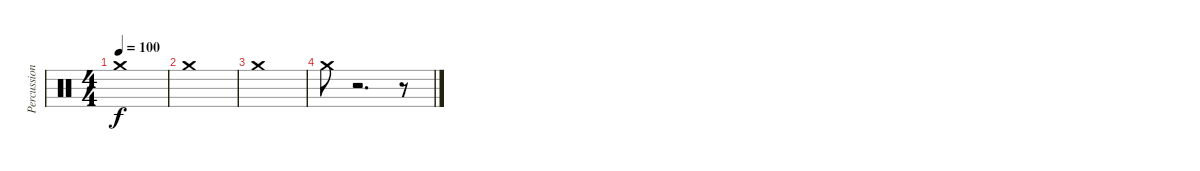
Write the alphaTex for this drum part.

\track ("Percussion" "Percussion") {instrument percussion}
\staff {score}
\articulation defaults
\ts (4 4)
\tempo 100
\clef neutral
\ks c "Crash medium (hit)".1{dy f}
|
"Crash medium (hit)".1 |
"Crash medium (hit)".1 |
"Crash medium (hit)".8 r.2{d} r.8
